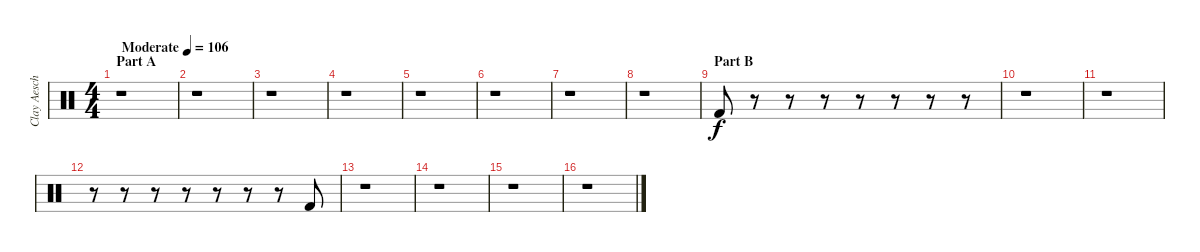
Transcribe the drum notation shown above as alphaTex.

\track ("Clay Aeschliman" "Clay Aesch") {instrument percussion}
\staff {score}
\articulation defaults
\ts (4 4)
\section ("" "Part A")
\tempo (106 "Moderate")
\clef neutral
\ks c
r.1{dy f} |
r.1 |
r.1 |
r.1 |
r.1 |
r.1 |
r.1 |
r.1 |
\section ("" "Part B")
"Kick (hit) 2".8 r.8 r.8 r.8 r.8 r.8 r.8 r.8 |
r.1 |
r.1 |
r.8 r.8 r.8 r.8 r.8 r.8 r.8 "Kick (hit) 2".8 |
r.1 |
r.1 |
r.1 |
r.1
